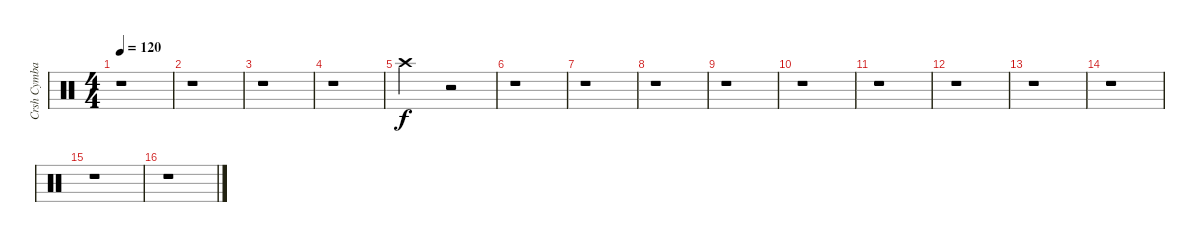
\track ("Crsh Cymbal         " "Crsh Cymba") {instrument percussion}
\staff {score}
\articulation defaults
\ts (4 4)
\tempo 120
\clef neutral
\ks c
r.1{dy f} |
r.1 |
r.1 |
r.1 |
"Crash high (hit)".2 r.2 |
r.1 |
r.1 |
r.1 |
r.1 |
r.1 |
r.1 |
r.1 |
r.1 |
r.1 |
r.1 |
r.1
